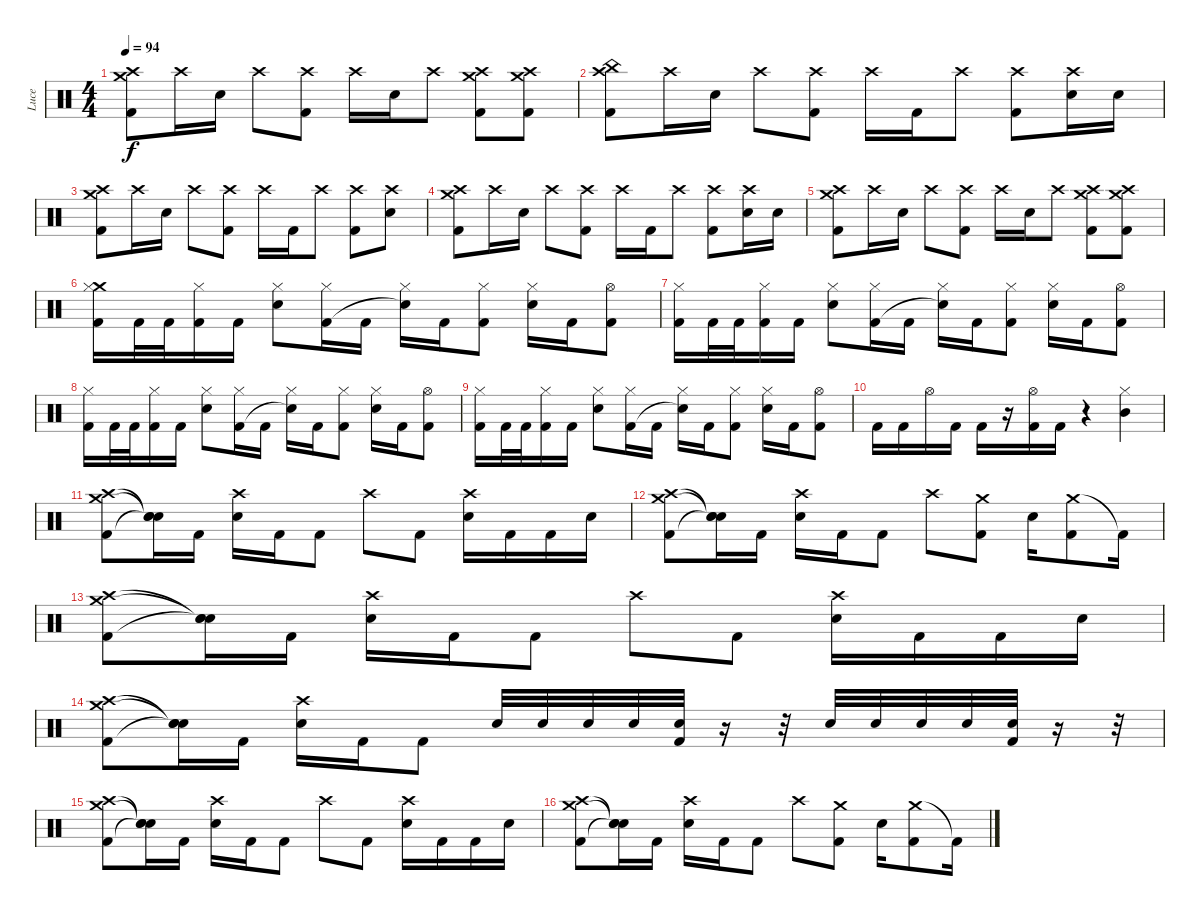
\track ("Luce" "Luce") {instrument percussion}
\staff {score}
\articulation defaults
\ts (4 4)
\tempo 94
\clef neutral
\ks c
("Crash high (hit)" "Crash medium (hit)" "Kick (hit) 2").8{dy f} "Crash high (hit)".16 "Electric Snare (hit)".16 "Crash high (hit)".8 ("Crash high (hit)" "Kick (hit) 2").8 "Crash high (hit)".16 "Electric Snare (hit)".16 "Crash high (hit)".8 ("Crash high (hit)" "Crash medium (hit)" "Kick (hit) 2").8 ("Crash high (hit)" "Crash medium (hit)" "Kick (hit) 2").8 |
("Crash high (hit)" "China (hit)" "Kick (hit) 2").8 "Crash high (hit)".16 "Electric Snare (hit)".16 "Crash high (hit)".8 ("Crash high (hit)" "Kick (hit) 2").8 "Crash high (hit)".16 "Kick (hit) 2".16 "Crash high (hit)".8 ("Crash high (hit)" "Kick (hit) 2").8 ("Crash high (hit)" "Electric Snare (hit)").16 "Electric Snare (hit)".16 |
("Crash high (hit)" "Crash medium (hit)" "Kick (hit) 2").8 "Crash high (hit)".16 "Electric Snare (hit)".16 "Crash high (hit)".8 ("Crash high (hit)" "Kick (hit) 2").8 "Crash high (hit)".16 "Kick (hit) 2".16 "Crash high (hit)".8 ("Crash high (hit)" "Kick (hit) 2").8 ("Crash high (hit)" "Electric Snare (hit)").8 |
("Crash high (hit)" "Crash medium (hit)" "Kick (hit) 2").8 "Crash high (hit)".16 "Electric Snare (hit)".16 "Crash high (hit)".8 ("Crash high (hit)" "Kick (hit) 2").8 "Crash high (hit)".16 "Kick (hit) 2".16 "Crash high (hit)".8 ("Crash high (hit)" "Kick (hit) 2").8 ("Crash high (hit)" "Electric Snare (hit)").16 "Electric Snare (hit)".16 |
("Crash high (hit)" "Crash medium (hit)" "Kick (hit) 2").8 "Crash high (hit)".16 "Electric Snare (hit)".16 "Crash high (hit)".8 ("Crash high (hit)" "Kick (hit) 2").8 "Crash high (hit)".16 "Electric Snare (hit)".16 "Crash high (hit)".8 ("Crash high (hit)" "Crash medium (hit)" "Kick (hit) 2").8 ("Crash high (hit)" "Crash medium (hit)" "Kick (hit) 2").8 |
("Crash medium (hit)" "Hi-Hat (closed)" "Kick (hit) 2").16 "Kick (hit) 2".32 "Kick (hit) 2".32 ("Hi-Hat (closed)" "Kick (hit) 2").16 "Kick (hit) 2".16 ("Hi-Hat (closed)" "Electric Snare (hit)").8 ("Hi-Hat (closed)" "Kick (hit) 2").16 "Kick (hit) 2".16 ("Hi-Hat (closed)" "Snare (hit)"{t}).16 "Kick (hit) 2".16 ("Hi-Hat (closed)" "Kick (hit) 2").8 ("Hi-Hat (closed)" "Electric Snare (hit)").16 "Kick (hit) 2".16 ("Hi-Hat (open)" "Kick (hit) 2").8 |
("Hi-Hat (closed)" "Kick (hit) 2").16 "Kick (hit) 2".32 "Kick (hit) 2".32 ("Hi-Hat (closed)" "Kick (hit) 2").16 "Kick (hit) 2".16 ("Hi-Hat (closed)" "Electric Snare (hit)").8 ("Hi-Hat (closed)" "Kick (hit) 2").16 "Kick (hit) 2".16 ("Hi-Hat (closed)" "Snare (hit)"{t}).16 "Kick (hit) 2".16 ("Hi-Hat (closed)" "Kick (hit) 2").8 ("Hi-Hat (closed)" "Electric Snare (hit)").16 "Kick (hit) 2".16 ("Hi-Hat (open)" "Kick (hit) 2").8 |
("Hi-Hat (closed)" "Kick (hit) 2").16 "Kick (hit) 2".32 "Kick (hit) 2".32 ("Hi-Hat (closed)" "Kick (hit) 2").16 "Kick (hit) 2".16 ("Hi-Hat (closed)" "Electric Snare (hit)").8 ("Hi-Hat (closed)" "Kick (hit) 2").16 "Kick (hit) 2".16 ("Hi-Hat (closed)" "Snare (hit)"{t}).16 "Kick (hit) 2".16 ("Hi-Hat (closed)" "Kick (hit) 2").8 ("Hi-Hat (closed)" "Electric Snare (hit)").16 "Kick (hit) 2".16 ("Hi-Hat (open)" "Kick (hit) 2").8 |
("Hi-Hat (closed)" "Kick (hit) 2").16 "Kick (hit) 2".32 "Kick (hit) 2".32 ("Hi-Hat (closed)" "Kick (hit) 2").16 "Kick (hit) 2".16 ("Hi-Hat (closed)" "Electric Snare (hit)").8 ("Hi-Hat (closed)" "Kick (hit) 2").16 "Kick (hit) 2".16 ("Hi-Hat (closed)" "Snare (hit)"{t}).16 "Kick (hit) 2".16 ("Hi-Hat (closed)" "Kick (hit) 2").8 ("Hi-Hat (closed)" "Electric Snare (hit)").16 "Kick (hit) 2".16 ("Hi-Hat (open)" "Kick (hit) 2").8 |
"Kick (hit) 2".16 "Kick (hit) 2".16 "Hi-Hat (open)".16 "Kick (hit) 2".16 "Kick (hit) 2".16 r.16 ("Hi-Hat (open)" "Kick (hit) 2").16 "Kick (hit) 2".16 r.4 ("Mid Tom (hit)" "Hi-Hat (closed)").4 |
("Crash high (hit)" "Crash medium (hit)" "Kick (hit) 2").8 ("Snare (hit)"{t} "Snare (hit)"{t} "Snare (hit)"{t}).16 "Kick (hit) 2".16 ("Crash high (hit)" "Electric Snare (hit)").16 "Kick (hit) 2".16 "Kick (hit) 2".8 "Crash high (hit)".8 "Kick (hit) 2".8 ("Crash high (hit)" "Electric Snare (hit)").16 "Kick (hit) 2".16 "Kick (hit) 2".16 "Electric Snare (hit)".16 |
("Crash high (hit)" "Crash medium (hit)" "Kick (hit) 2").8 ("Snare (hit)"{t} "Snare (hit)"{t} "Snare (hit)"{t}).16 "Kick (hit) 2".16 ("Crash high (hit)" "Electric Snare (hit)").16 "Kick (hit) 2".16 "Kick (hit) 2".8 "Crash high (hit)".8 ("Crash medium (hit)" "Kick (hit) 2").8 "Electric Snare (hit)".16 ("Crash medium (hit)" "Kick (hit) 2").8 "Kick (hit) 2"{t}.16 |
("Crash high (hit)" "Crash medium (hit)" "Kick (hit) 2").8 ("Snare (hit)"{t} "Snare (hit)"{t} "Snare (hit)"{t}).16 "Kick (hit) 2".16 ("Crash high (hit)" "Electric Snare (hit)").16 "Kick (hit) 2".16 "Kick (hit) 2".8 "Crash high (hit)".8 "Kick (hit) 2".8 ("Crash high (hit)" "Electric Snare (hit)").16 "Kick (hit) 2".16 "Kick (hit) 2".16 "Electric Snare (hit)".16 |
("Crash high (hit)" "Crash medium (hit)" "Kick (hit) 2").8 ("Snare (hit)"{t} "Snare (hit)"{t} "Snare (hit)"{t}).16 "Kick (hit) 2".16 ("Crash high (hit)" "Electric Snare (hit)").16 "Kick (hit) 2".16 "Kick (hit) 2".8 "Electric Snare (hit)".32 "Electric Snare (hit)".32 "Electric Snare (hit)".32 "Electric Snare (hit)".32 ("Electric Snare (hit)" "Kick (hit) 2").32 r.16 r.32 "Electric Snare (hit)".32 "Electric Snare (hit)".32 "Electric Snare (hit)".32 "Electric Snare (hit)".32 ("Electric Snare (hit)" "Kick (hit) 2").32 r.16 r.32 |
("Crash high (hit)" "Crash medium (hit)" "Kick (hit) 2").8 ("Snare (hit)"{t} "Snare (hit)"{t} "Snare (hit)"{t}).16 "Kick (hit) 2".16 ("Crash high (hit)" "Electric Snare (hit)").16 "Kick (hit) 2".16 "Kick (hit) 2".8 "Crash high (hit)".8 "Kick (hit) 2".8 ("Crash high (hit)" "Electric Snare (hit)").16 "Kick (hit) 2".16 "Kick (hit) 2".16 "Electric Snare (hit)".16 |
("Crash high (hit)" "Crash medium (hit)" "Kick (hit) 2").8 ("Snare (hit)"{t} "Snare (hit)"{t} "Snare (hit)"{t}).16 "Kick (hit) 2".16 ("Crash high (hit)" "Electric Snare (hit)").16 "Kick (hit) 2".16 "Kick (hit) 2".8 "Crash high (hit)".8 ("Crash medium (hit)" "Kick (hit) 2").8 "Electric Snare (hit)".16 ("Crash medium (hit)" "Kick (hit) 2").8 "Kick (hit) 2"{t}.16
